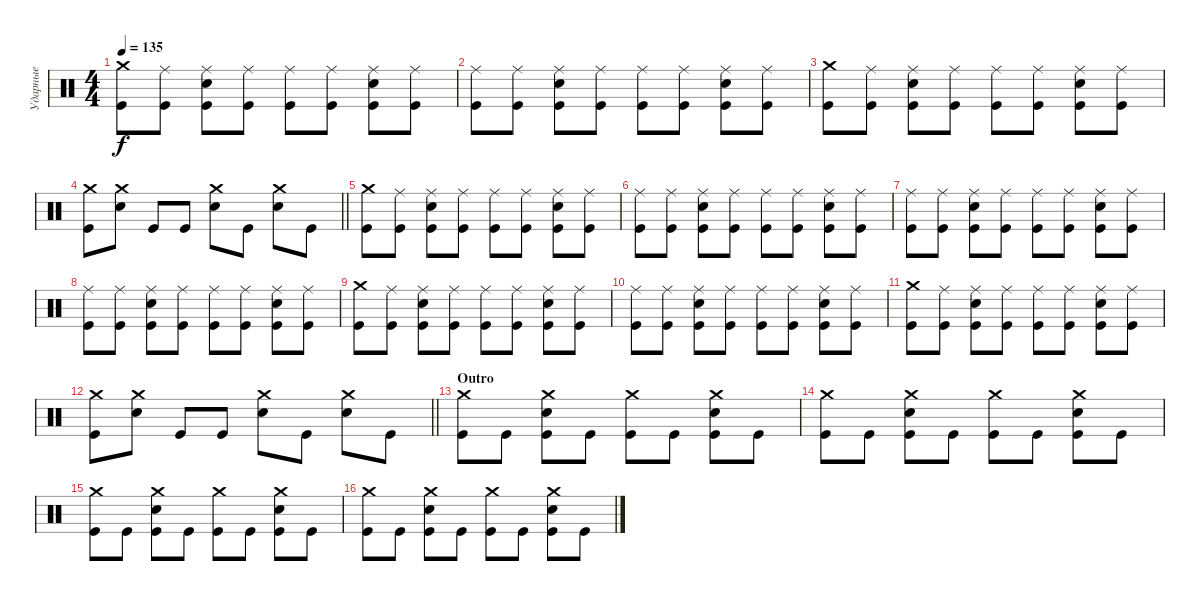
\track ("Ударные" "Ударные") {instrument percussion}
\staff {score}
\articulation defaults
\ts (4 4)
\tempo 135
\clef neutral
\ks c
("Crash medium (hit)" "Kick (hit)").8{dy f} ("Ride (middle)" "Kick (hit)").8 ("Ride (middle)" "Electric Snare (hit)" "Kick (hit)").8 ("Ride (middle)" "Kick (hit)").8 ("Ride (middle)" "Kick (hit)").8 ("Ride (middle)" "Kick (hit)").8 ("Ride (middle)" "Electric Snare (hit)" "Kick (hit)").8 ("Ride (middle)" "Kick (hit)").8 |
("Ride (middle)" "Kick (hit)").8 ("Ride (middle)" "Kick (hit)").8 ("Ride (middle)" "Electric Snare (hit)" "Kick (hit)").8 ("Ride (middle)" "Kick (hit)").8 ("Ride (middle)" "Kick (hit)").8 ("Ride (middle)" "Kick (hit)").8 ("Ride (middle)" "Electric Snare (hit)" "Kick (hit)").8 ("Ride (middle)" "Kick (hit)").8 |
("Crash medium (hit)" "Kick (hit)").8 ("Ride (middle)" "Kick (hit)").8 ("Ride (middle)" "Electric Snare (hit)" "Kick (hit)").8 ("Ride (middle)" "Kick (hit)").8 ("Ride (middle)" "Kick (hit)").8 ("Ride (middle)" "Kick (hit)").8 ("Ride (middle)" "Electric Snare (hit)" "Kick (hit)").8 ("Ride (middle)" "Kick (hit)").8 |
\barLineRight lightlight
("Crash medium (hit)" "Kick (hit)").8 ("Crash medium (hit)" "Electric Snare (hit)").8 "Kick (hit)".8 "Kick (hit)".8 ("Crash medium (hit)" "Electric Snare (hit)").8 "Kick (hit)".8 ("Crash medium (hit)" "Electric Snare (hit)").8 "Kick (hit)".8 |
\section ("" " ")
("Crash medium (hit)" "Kick (hit)").8 ("Ride (middle)" "Kick (hit)").8 ("Ride (middle)" "Electric Snare (hit)" "Kick (hit)").8 ("Ride (middle)" "Kick (hit)").8 ("Ride (middle)" "Kick (hit)").8 ("Ride (middle)" "Kick (hit)").8 ("Ride (middle)" "Electric Snare (hit)" "Kick (hit)").8 ("Ride (middle)" "Kick (hit)").8 |
("Ride (middle)" "Kick (hit)").8 ("Ride (middle)" "Kick (hit)").8 ("Ride (middle)" "Electric Snare (hit)" "Kick (hit)").8 ("Ride (middle)" "Kick (hit)").8 ("Ride (middle)" "Kick (hit)").8 ("Ride (middle)" "Kick (hit)").8 ("Ride (middle)" "Electric Snare (hit)" "Kick (hit)").8 ("Ride (middle)" "Kick (hit)").8 |
("Ride (middle)" "Kick (hit)").8 ("Ride (middle)" "Kick (hit)").8 ("Ride (middle)" "Electric Snare (hit)" "Kick (hit)").8 ("Ride (middle)" "Kick (hit)").8 ("Ride (middle)" "Kick (hit)").8 ("Ride (middle)" "Kick (hit)").8 ("Ride (middle)" "Electric Snare (hit)" "Kick (hit)").8 ("Ride (middle)" "Kick (hit)").8 |
("Ride (middle)" "Kick (hit)").8 ("Ride (middle)" "Kick (hit)").8 ("Ride (middle)" "Electric Snare (hit)" "Kick (hit)").8 ("Ride (middle)" "Kick (hit)").8 ("Ride (middle)" "Kick (hit)").8 ("Ride (middle)" "Kick (hit)").8 ("Ride (middle)" "Electric Snare (hit)" "Kick (hit)").8 ("Ride (middle)" "Kick (hit)").8 |
("Crash medium (hit)" "Kick (hit)").8 ("Ride (middle)" "Kick (hit)").8 ("Ride (middle)" "Electric Snare (hit)" "Kick (hit)").8 ("Ride (middle)" "Kick (hit)").8 ("Ride (middle)" "Kick (hit)").8 ("Ride (middle)" "Kick (hit)").8 ("Ride (middle)" "Electric Snare (hit)" "Kick (hit)").8 ("Ride (middle)" "Kick (hit)").8 |
("Ride (middle)" "Kick (hit)").8 ("Ride (middle)" "Kick (hit)").8 ("Ride (middle)" "Electric Snare (hit)" "Kick (hit)").8 ("Ride (middle)" "Kick (hit)").8 ("Ride (middle)" "Kick (hit)").8 ("Ride (middle)" "Kick (hit)").8 ("Ride (middle)" "Electric Snare (hit)" "Kick (hit)").8 ("Ride (middle)" "Kick (hit)").8 |
("Crash medium (hit)" "Kick (hit)").8 ("Ride (middle)" "Kick (hit)").8 ("Ride (middle)" "Electric Snare (hit)" "Kick (hit)").8 ("Ride (middle)" "Kick (hit)").8 ("Ride (middle)" "Kick (hit)").8 ("Ride (middle)" "Kick (hit)").8 ("Ride (middle)" "Electric Snare (hit)" "Kick (hit)").8 ("Ride (middle)" "Kick (hit)").8 |
\barLineRight lightlight
("Crash medium (hit)" "Kick (hit)").8 ("Crash medium (hit)" "Electric Snare (hit)").8 "Kick (hit)".8 "Kick (hit)".8 ("Crash medium (hit)" "Electric Snare (hit)").8 "Kick (hit)".8 ("Crash medium (hit)" "Electric Snare (hit)").8 "Kick (hit)".8 |
\section ("" "Outro")
("Crash medium (hit)" "Kick (hit)").8 "Kick (hit)".8 ("Crash medium (hit)" "Electric Snare (hit)" "Kick (hit)").8 "Kick (hit)".8 ("Crash medium (hit)" "Kick (hit)").8 "Kick (hit)".8 ("Crash medium (hit)" "Electric Snare (hit)" "Kick (hit)").8 "Kick (hit)".8 |
("Crash medium (hit)" "Kick (hit)").8 "Kick (hit)".8 ("Crash medium (hit)" "Electric Snare (hit)" "Kick (hit)").8 "Kick (hit)".8 ("Crash medium (hit)" "Kick (hit)").8 "Kick (hit)".8 ("Crash medium (hit)" "Electric Snare (hit)" "Kick (hit)").8 "Kick (hit)".8 |
("Crash medium (hit)" "Kick (hit)").8 "Kick (hit)".8 ("Crash medium (hit)" "Electric Snare (hit)" "Kick (hit)").8 "Kick (hit)".8 ("Crash medium (hit)" "Kick (hit)").8 "Kick (hit)".8 ("Crash medium (hit)" "Electric Snare (hit)" "Kick (hit)").8 "Kick (hit)".8 |
("Crash medium (hit)" "Kick (hit)").8 "Kick (hit)".8 ("Crash medium (hit)" "Electric Snare (hit)" "Kick (hit)").8 "Kick (hit)".8 ("Crash medium (hit)" "Kick (hit)").8 "Kick (hit)".8 ("Crash medium (hit)" "Electric Snare (hit)" "Kick (hit)").8 "Kick (hit)".8
